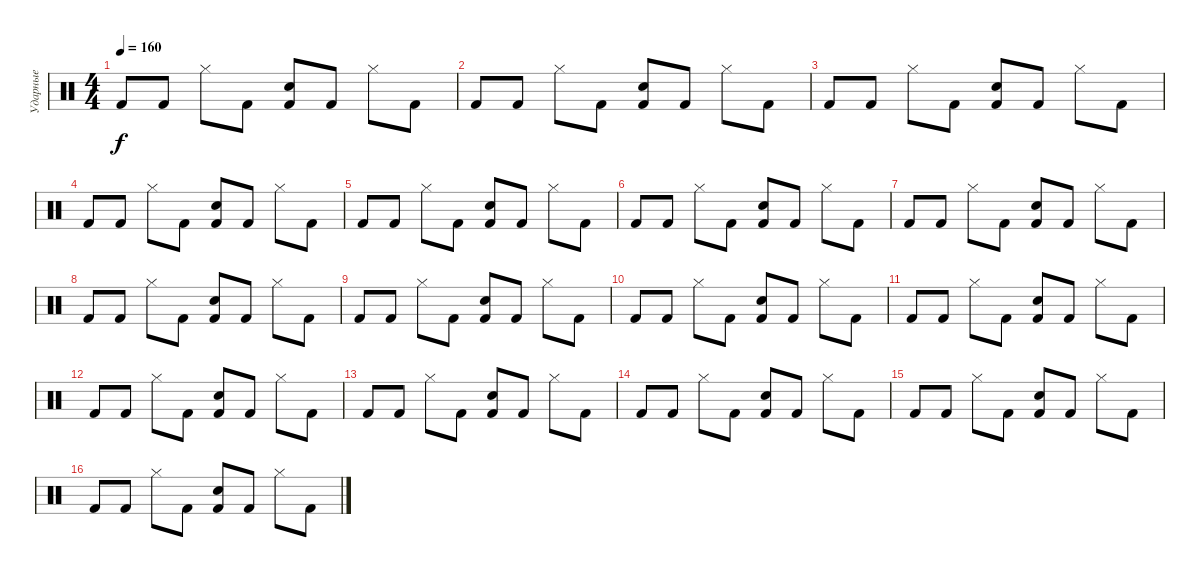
\track ("Ударные" "Ударные") {instrument percussion}
\staff {score}
\articulation defaults
\ts (4 4)
\tempo 160
\clef neutral
\ks c "Kick (hit) 2".8{dy f} "Kick (hit) 2".8 "Hi-Hat (closed)".8 "Kick (hit) 2".8
("Kick (hit) 2" "Snare (hit) 2").8 "Kick (hit) 2".8 "Hi-Hat (closed)".8 "Kick (hit) 2".8 |
"Kick (hit) 2".8 "Kick (hit) 2".8 "Hi-Hat (closed)".8 "Kick (hit) 2".8 ("Kick (hit) 2" "Snare (hit) 2").8 "Kick (hit) 2".8 "Hi-Hat (closed)".8 "Kick (hit) 2".8 |
"Kick (hit) 2".8 "Kick (hit) 2".8 "Hi-Hat (closed)".8 "Kick (hit) 2".8 ("Kick (hit) 2" "Snare (hit) 2").8 "Kick (hit) 2".8 "Hi-Hat (closed)".8 "Kick (hit) 2".8 |
"Kick (hit) 2".8 "Kick (hit) 2".8 "Hi-Hat (closed)".8 "Kick (hit) 2".8 ("Kick (hit) 2" "Snare (hit) 2").8 "Kick (hit) 2".8 "Hi-Hat (closed)".8 "Kick (hit) 2".8 |
"Kick (hit) 2".8 "Kick (hit) 2".8 "Hi-Hat (closed)".8 "Kick (hit) 2".8 ("Kick (hit) 2" "Snare (hit) 2").8 "Kick (hit) 2".8 "Hi-Hat (closed)".8 "Kick (hit) 2".8 |
"Kick (hit) 2".8 "Kick (hit) 2".8 "Hi-Hat (closed)".8 "Kick (hit) 2".8 ("Kick (hit) 2" "Snare (hit) 2").8 "Kick (hit) 2".8 "Hi-Hat (closed)".8 "Kick (hit) 2".8 |
"Kick (hit) 2".8 "Kick (hit) 2".8 "Hi-Hat (closed)".8 "Kick (hit) 2".8 ("Kick (hit) 2" "Snare (hit) 2").8 "Kick (hit) 2".8 "Hi-Hat (closed)".8 "Kick (hit) 2".8 |
"Kick (hit) 2".8 "Kick (hit) 2".8 "Hi-Hat (closed)".8 "Kick (hit) 2".8 ("Kick (hit) 2" "Snare (hit) 2").8 "Kick (hit) 2".8 "Hi-Hat (closed)".8 "Kick (hit) 2".8 |
"Kick (hit) 2".8 "Kick (hit) 2".8 "Hi-Hat (closed)".8 "Kick (hit) 2".8 ("Kick (hit) 2" "Snare (hit) 2").8 "Kick (hit) 2".8 "Hi-Hat (closed)".8 "Kick (hit) 2".8 |
"Kick (hit) 2".8 "Kick (hit) 2".8 "Hi-Hat (closed)".8 "Kick (hit) 2".8 ("Kick (hit) 2" "Snare (hit) 2").8 "Kick (hit) 2".8 "Hi-Hat (closed)".8 "Kick (hit) 2".8 |
"Kick (hit) 2".8 "Kick (hit) 2".8 "Hi-Hat (closed)".8 "Kick (hit) 2".8 ("Kick (hit) 2" "Snare (hit) 2").8 "Kick (hit) 2".8 "Hi-Hat (closed)".8 "Kick (hit) 2".8 |
"Kick (hit) 2".8 "Kick (hit) 2".8 "Hi-Hat (closed)".8 "Kick (hit) 2".8 ("Kick (hit) 2" "Snare (hit) 2").8 "Kick (hit) 2".8 "Hi-Hat (closed)".8 "Kick (hit) 2".8 |
"Kick (hit) 2".8 "Kick (hit) 2".8 "Hi-Hat (closed)".8 "Kick (hit) 2".8 ("Kick (hit) 2" "Snare (hit) 2").8 "Kick (hit) 2".8 "Hi-Hat (closed)".8 "Kick (hit) 2".8 |
"Kick (hit) 2".8 "Kick (hit) 2".8 "Hi-Hat (closed)".8 "Kick (hit) 2".8 ("Kick (hit) 2" "Snare (hit) 2").8 "Kick (hit) 2".8 "Hi-Hat (closed)".8 "Kick (hit) 2".8 |
"Kick (hit) 2".8 "Kick (hit) 2".8 "Hi-Hat (closed)".8 "Kick (hit) 2".8 ("Kick (hit) 2" "Snare (hit) 2").8 "Kick (hit) 2".8 "Hi-Hat (closed)".8 "Kick (hit) 2".8 |
"Kick (hit) 2".8 "Kick (hit) 2".8 "Hi-Hat (closed)".8 "Kick (hit) 2".8 ("Kick (hit) 2" "Snare (hit) 2").8 "Kick (hit) 2".8 "Hi-Hat (closed)".8 "Kick (hit) 2".8
